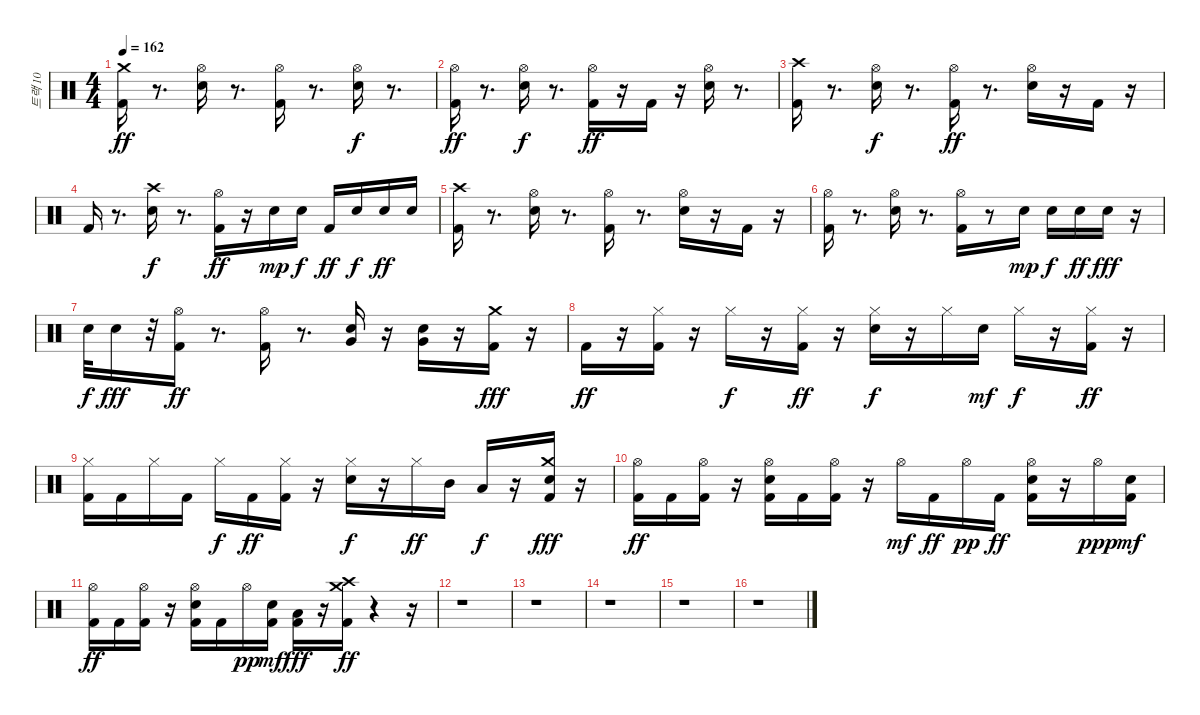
\track ("트랙 10" "트랙 10") {instrument percussion}
\staff {score}
\articulation defaults
\ts (4 4)
\tempo 162
\clef neutral
\ks c
("Kick (hit) 2" "Crash medium (hit)").16{dy ff} r.8{d} ("Hi-Hat (open)" "Electric Snare (hit)").16 r.8{d} ("Hi-Hat (open)" "Kick (hit) 2").16 r.8{d} ("Hi-Hat (open)" "Electric Snare (hit)").16{dy f} r.8{d} |
("Hi-Hat (open)" "Kick (hit) 2").16{dy ff} r.8{d} ("Hi-Hat (open)" "Electric Snare (hit)").16{dy f} r.8{d} ("Hi-Hat (open)" "Kick (hit) 2").16{dy ff} r.16 "Kick (hit) 2".16 r.16 ("Hi-Hat (open)" "Electric Snare (hit)").16 r.8{d} |
("Kick (hit) 2" "Crash high (hit)").16 r.8{d} ("Hi-Hat (open)" "Electric Snare (hit)").16{dy f} r.8{d} ("Hi-Hat (open)" "Kick (hit) 2").16{dy ff} r.8{d} ("Hi-Hat (open)" "Electric Snare (hit)").16 r.16 "Kick (hit) 2".16 r.16 |
"Kick (hit) 2".16 r.8{d} ("Crash high (hit)" "Electric Snare (hit)").16{dy f} r.8{d} ("Hi-Hat (open)" "Kick (hit) 2").16{dy ff} r.16 "Electric Snare (hit)".16{dy mp} "Electric Snare (hit)".16{dy f} "Kick (hit) 2".16{dy ff} "Electric Snare (hit)".16{dy f} "Electric Snare (hit)".16{dy ff} "Electric Snare (hit)".16 |
("Kick (hit) 2" "Crash high (hit)").16 r.8{d} ("Hi-Hat (open)" "Electric Snare (hit)").16 r.8{d} ("Hi-Hat (open)" "Kick (hit) 2").16 r.8{d} ("Hi-Hat (open)" "Electric Snare (hit)").16 r.16 "Kick (hit) 2".16 r.16 |
("Hi-Hat (open)" "Kick (hit) 2").16 r.8{d} ("Hi-Hat (open)" "Electric Snare (hit)").16 r.8{d} ("Hi-Hat (open)" "Kick (hit) 2").16 r.8 "Electric Snare (hit)".16{dy mp} "Electric Snare (hit)".16{dy f} "Electric Snare (hit)".16{dy ff} "Electric Snare (hit)".16{dy fff} r.16 |
"Electric Snare (hit)".32{dy f} "Electric Snare (hit)".16{dy fff} r.32 ("Hi-Hat (open)" "Kick (hit) 2").16{dy ff} r.8{d} ("Hi-Hat (open)" "Kick (hit) 2").16 r.8{d} ("Electric Snare (hit)" "Very Low Tom (hit)").16 r.16 ("Electric Snare (hit)" "Very Low Tom (hit)").16 r.16 ("Kick (hit) 2" "Crash medium (hit)").16{dy fff} r.16 |
"Kick (hit) 2".16{dy ff} r.16 ("Hi-Hat (closed)" "Kick (hit) 2").16 r.16 "Hi-Hat (closed)".16{dy f} r.16 ("Hi-Hat (closed)" "Kick (hit) 2").16{dy ff} r.16 ("Hi-Hat (closed)" "Electric Snare (hit)").16{dy f} r.16 "Hi-Hat (closed)".16 "Electric Snare (hit)".16{dy mf} "Hi-Hat (closed)".16{dy f} r.16 ("Hi-Hat (closed)" "Kick (hit) 2").16{dy ff} r.16 |
("Hi-Hat (closed)" "Kick (hit) 2").16 "Kick (hit) 2".16 "Hi-Hat (closed)".16 "Kick (hit) 2".16 "Hi-Hat (closed)".16{dy f} "Kick (hit) 2".16{dy ff} ("Hi-Hat (closed)" "Kick (hit) 2").16 r.16 ("Hi-Hat (closed)" "Electric Snare (hit)").16{dy f} r.16 "Hi-Hat (closed)".16{dy ff} "Mid Tom (hit)".16 "Low Tom (hit)".16{dy f} r.16 ("Kick (hit) 2" "Crash medium (hit)" "Electric Snare (hit)").16{dy fff} r.16 |
("Hi-Hat (open)" "Kick (hit) 2").16{dy ff} "Kick (hit) 2".16 ("Hi-Hat (open)" "Kick (hit) 2").16 r.16 ("Hi-Hat (open)" "Kick (hit) 2" "Electric Snare (hit)").16 "Kick (hit) 2".16 ("Hi-Hat (open)" "Kick (hit) 2").16 r.16 "Hi-Hat (open)".16{dy mf} "Kick (hit) 2".16{dy ff} "Hi-Hat (open)".16{dy pp} "Kick (hit) 2".16{dy ff} ("Hi-Hat (open)" "Kick (hit) 2" "Electric Snare (hit)").16 r.16 "Hi-Hat (open)".16{dy ppp} ("Kick (hit) 2" "Electric Snare (hit)").16{dy mf} |
("Hi-Hat (open)" "Kick (hit) 2").16{dy ff} "Kick (hit) 2".16 ("Hi-Hat (open)" "Kick (hit) 2").16 r.16 ("Hi-Hat (open)" "Kick (hit) 2" "Electric Snare (hit)").16 "Kick (hit) 2".16 "Hi-Hat (open)".16{dy pp} ("Kick (hit) 2" "Electric Snare (hit)").16{dy mf} ("Kick (hit) 2" "Low Tom (hit)").16{dy fff} r.16 ("Kick (hit) 2" "Crash high (hit)" "Crash medium (hit)").16{dy ff} r.4 r.16 |
r.1 |
r.1 |
r.1 |
r.1 |
r.1
